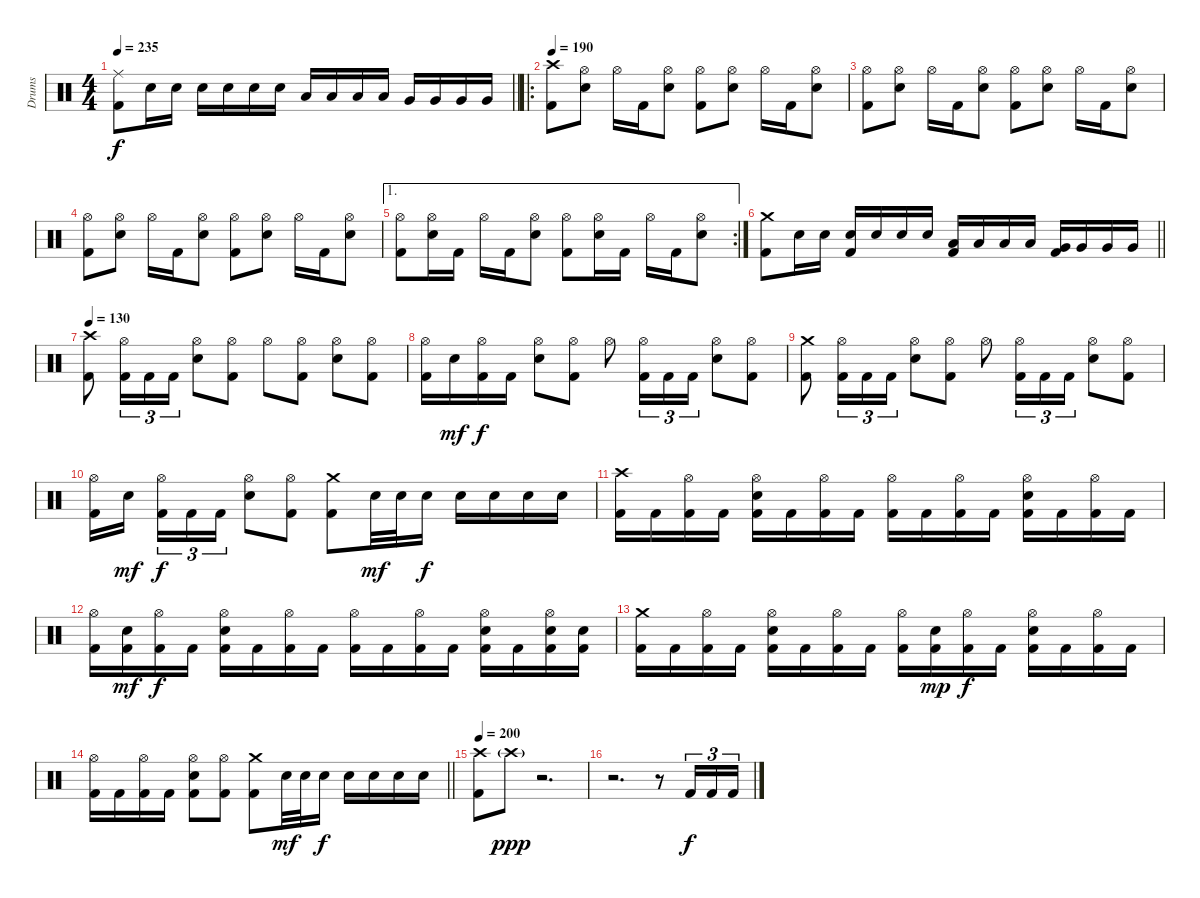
\track ("Drums" "Drums") {instrument percussion}
\staff {score}
\articulation defaults
\ts (4 4)
\tempo 235
\clef neutral
\barLineRight lightlight
\ks c
("Ride (middle)" "Kick (hit) 2").8{dy f} "Electric Snare (hit)".16 "Electric Snare (hit)".16 "Electric Snare (hit)".16 "Electric Snare (hit)".16 "Electric Snare (hit)".16 "Electric Snare (hit)".16 "Low Tom (hit)".16 "Low Tom (hit)".16 "Low Tom (hit)".16 "Low Tom (hit)".16 "Very Low Tom (hit)".16 "Very Low Tom (hit)".16 "Very Low Tom (hit)".16 "Very Low Tom (hit)".16 |
\ro
\section ("" "")
\tempo 190
("Crash high (hit)" "Kick (hit) 2").8 ("Hi-Hat (open)" "Electric Snare (hit)").8 "Hi-Hat (open)".16 "Kick (hit) 2".16 ("Hi-Hat (open)" "Electric Snare (hit)").8 ("Hi-Hat (open)" "Kick (hit) 2").8 ("Hi-Hat (open)" "Electric Snare (hit)").8 "Hi-Hat (open)".16 "Kick (hit) 2".16 ("Hi-Hat (open)" "Electric Snare (hit)").8 |
("Hi-Hat (open)" "Kick (hit) 2").8 ("Hi-Hat (open)" "Electric Snare (hit)").8 "Hi-Hat (open)".16 "Kick (hit) 2".16 ("Hi-Hat (open)" "Electric Snare (hit)").8 ("Hi-Hat (open)" "Kick (hit) 2").8 ("Hi-Hat (open)" "Electric Snare (hit)").8 "Hi-Hat (open)".16 "Kick (hit) 2".16 ("Hi-Hat (open)" "Electric Snare (hit)").8 |
("Hi-Hat (open)" "Kick (hit) 2").8 ("Hi-Hat (open)" "Electric Snare (hit)").8 "Hi-Hat (open)".16 "Kick (hit) 2".16 ("Hi-Hat (open)" "Electric Snare (hit)").8 ("Hi-Hat (open)" "Kick (hit) 2").8 ("Hi-Hat (open)" "Electric Snare (hit)").8 "Hi-Hat (open)".16 "Kick (hit) 2".16 ("Hi-Hat (open)" "Electric Snare (hit)").8 |
\ae 1
\rc 2
("Hi-Hat (open)" "Kick (hit) 2").8 ("Hi-Hat (open)" "Electric Snare (hit)").16 "Kick (hit) 2".16 "Hi-Hat (open)".16 "Kick (hit) 2".16 ("Hi-Hat (open)" "Electric Snare (hit)").8 ("Hi-Hat (open)" "Kick (hit) 2").8 ("Hi-Hat (open)" "Electric Snare (hit)").16 "Kick (hit) 2".16 "Hi-Hat (open)".16 "Kick (hit) 2".16 ("Hi-Hat (open)" "Electric Snare (hit)").8 |
\barLineRight lightlight
("Crash medium (hit)" "Kick (hit) 2").8 "Electric Snare (hit)".16 "Electric Snare (hit)".16 ("Electric Snare (hit)" "Kick (hit) 2").16 "Electric Snare (hit)".16 "Electric Snare (hit)".16 "Electric Snare (hit)".16 ("Low Tom (hit)" "Kick (hit) 2").16 "Low Tom (hit)".16 "Low Tom (hit)".16 "Low Tom (hit)".16 ("Very Low Tom (hit)" "Kick (hit) 2").16 "Very Low Tom (hit)".16 "Very Low Tom (hit)".16 "Very Low Tom (hit)".16 |
\section ("" "")
\tempo 130
("Crash high (hit)" "Kick (hit) 2").8 ("Hi-Hat (open)" "Kick (hit) 2").16{tu (3 2)} "Kick (hit) 2".16{tu (3 2)} "Kick (hit) 2".16{tu (3 2)} ("Hi-Hat (open)" "Electric Snare (hit)").8 ("Hi-Hat (open)" "Kick (hit) 2").8 "Hi-Hat (open)".8 ("Hi-Hat (open)" "Kick (hit) 2").8 ("Hi-Hat (open)" "Electric Snare (hit)").8 ("Hi-Hat (open)" "Kick (hit) 2").8 |
("Hi-Hat (open)" "Kick (hit) 2").16 "Electric Snare (hit)".16{dy mf} ("Hi-Hat (open)" "Kick (hit) 2").16{dy f} "Kick (hit) 2".16 ("Hi-Hat (open)" "Electric Snare (hit)").8 ("Hi-Hat (open)" "Kick (hit) 2").8 "Hi-Hat (open)".8 ("Hi-Hat (open)" "Kick (hit) 2").16{tu (3 2)} "Kick (hit) 2".16{tu (3 2)} "Kick (hit) 2".16{tu (3 2)} ("Hi-Hat (open)" "Electric Snare (hit)").8 ("Hi-Hat (open)" "Kick (hit) 2").8 |
("Crash medium (hit)" "Kick (hit) 2").8 ("Hi-Hat (open)" "Kick (hit) 2").16{tu (3 2)} "Kick (hit) 2".16{tu (3 2)} "Kick (hit) 2".16{tu (3 2)} ("Hi-Hat (open)" "Electric Snare (hit)").8 ("Hi-Hat (open)" "Kick (hit) 2").8 "Hi-Hat (open)".8 ("Hi-Hat (open)" "Kick (hit) 2").16{tu (3 2)} "Kick (hit) 2".16{tu (3 2)} "Kick (hit) 2".16{tu (3 2)} ("Hi-Hat (open)" "Electric Snare (hit)").8 ("Hi-Hat (open)" "Kick (hit) 2").8 |
("Hi-Hat (open)" "Kick (hit) 2").16 "Electric Snare (hit)".16{dy mf beam splitsecondary} ("Hi-Hat (open)" "Kick (hit) 2").16{tu (3 2) dy f} "Kick (hit) 2".16{tu (3 2)} "Kick (hit) 2".16{tu (3 2)} ("Hi-Hat (open)" "Electric Snare (hit)").8 ("Hi-Hat (open)" "Kick (hit) 2").8 ("Crash medium (hit)" "Kick (hit) 2").8 "Electric Snare (hit)".32{dy mf} "Electric Snare (hit)".32 "Electric Snare (hit)".16{dy f} "Electric Snare (hit)".16 "Electric Snare (hit)".16 "Electric Snare (hit)".16 "Electric Snare (hit)".16 |
("Crash high (hit)" "Kick (hit) 2").16 "Kick (hit) 2".16 ("Hi-Hat (open)" "Kick (hit) 2").16 "Kick (hit) 2".16 ("Hi-Hat (open)" "Electric Snare (hit)" "Kick (hit) 2").16 "Kick (hit) 2".16 ("Hi-Hat (open)" "Kick (hit) 2").16 "Kick (hit) 2".16 ("Hi-Hat (open)" "Kick (hit) 2").16 "Kick (hit) 2".16 ("Hi-Hat (open)" "Kick (hit) 2").16 "Kick (hit) 2".16 ("Hi-Hat (open)" "Electric Snare (hit)" "Kick (hit) 2").16 "Kick (hit) 2".16 ("Hi-Hat (open)" "Kick (hit) 2").16 "Kick (hit) 2".16 |
("Hi-Hat (open)" "Kick (hit) 2").16 ("Electric Snare (hit)" "Kick (hit) 2").16{dy mf} ("Hi-Hat (open)" "Kick (hit) 2").16{dy f} "Kick (hit) 2".16 ("Hi-Hat (open)" "Electric Snare (hit)" "Kick (hit) 2").16 "Kick (hit) 2".16 ("Hi-Hat (open)" "Kick (hit) 2").16 "Kick (hit) 2".16 ("Hi-Hat (open)" "Kick (hit) 2").16 "Kick (hit) 2".16 ("Hi-Hat (open)" "Kick (hit) 2").16 "Kick (hit) 2".16 ("Hi-Hat (open)" "Electric Snare (hit)" "Kick (hit) 2").16 "Kick (hit) 2".16 ("Hi-Hat (open)" "Electric Snare (hit)" "Kick (hit) 2").16 ("Electric Snare (hit)" "Kick (hit) 2").16 |
("Crash medium (hit)" "Kick (hit) 2").16 "Kick (hit) 2".16 ("Hi-Hat (open)" "Kick (hit) 2").16 "Kick (hit) 2".16 ("Hi-Hat (open)" "Electric Snare (hit)" "Kick (hit) 2").16 "Kick (hit) 2".16 ("Hi-Hat (open)" "Kick (hit) 2").16 "Kick (hit) 2".16 ("Hi-Hat (open)" "Kick (hit) 2").16 ("Electric Snare (hit)" "Kick (hit) 2").16{dy mp} ("Hi-Hat (open)" "Kick (hit) 2").16{dy f} "Kick (hit) 2".16 ("Hi-Hat (open)" "Electric Snare (hit)" "Kick (hit) 2").16 "Kick (hit) 2".16 ("Hi-Hat (open)" "Kick (hit) 2").16 "Kick (hit) 2".16 |
\barLineRight lightlight
("Hi-Hat (open)" "Kick (hit) 2").16 "Kick (hit) 2".16 ("Hi-Hat (open)" "Kick (hit) 2").16 "Kick (hit) 2".16 ("Hi-Hat (open)" "Electric Snare (hit)" "Kick (hit) 2").8 ("Hi-Hat (open)" "Kick (hit) 2").8 ("Crash medium (hit)" "Kick (hit) 2").8 "Electric Snare (hit)".32{dy mf} "Electric Snare (hit)".32 "Electric Snare (hit)".16{dy f} "Electric Snare (hit)".16 "Electric Snare (hit)".16 "Electric Snare (hit)".16 "Electric Snare (hit)".16 |
\section ("" "")
\tempo 200
("Crash high (hit)" "Kick (hit) 2").8 "Crash high (hit)"{g}.8{dy ppp} r.2{d} |
r.2{d} r.8 "Kick (hit) 2".16{tu (3 2) dy f} "Kick (hit) 2".16{tu (3 2)} "Kick (hit) 2".16{tu (3 2)}
